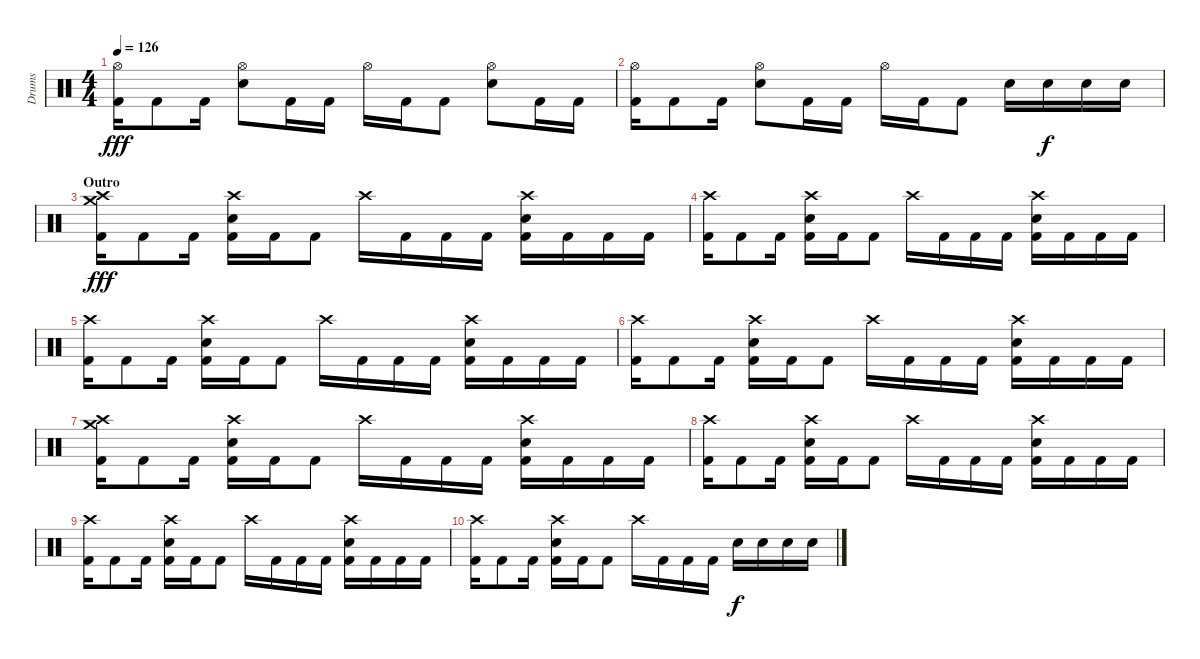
\track ("Drums" "Drums") {instrument percussion}
\staff {score}
\articulation defaults
\ts (4 4)
\tempo 126
\clef neutral
\ks c
("Hi-Hat (open)" "Kick (hit) 2").16{dy fff} "Kick (hit) 2".8 "Kick (hit) 2".16 ("Hi-Hat (open)" "Electric Snare (hit)").8 "Kick (hit) 2".16 "Kick (hit) 2".16 "Hi-Hat (open)".16 "Kick (hit) 2".16 "Kick (hit) 2".8 ("Hi-Hat (open)" "Electric Snare (hit)").8 "Kick (hit) 2".16 "Kick (hit) 2".16 |
("Hi-Hat (open)" "Kick (hit) 2").16 "Kick (hit) 2".8 "Kick (hit) 2".16 ("Hi-Hat (open)" "Electric Snare (hit)").8 "Kick (hit) 2".16 "Kick (hit) 2".16 "Hi-Hat (open)".16 "Kick (hit) 2".16 "Kick (hit) 2".8 "Electric Snare (hit)".16 "Electric Snare (hit)".16{dy f} "Electric Snare (hit)".16 "Electric Snare (hit)".16 |
\section ("" "Outro")
("Crash high (hit)" "Crash medium (hit)" "Kick (hit) 2").16{dy fff} "Kick (hit) 2".8 "Kick (hit) 2".16 ("Crash high (hit)" "Electric Snare (hit)" "Kick (hit) 2").16 "Kick (hit) 2".16 "Kick (hit) 2".8 "Crash high (hit)".16 "Kick (hit) 2".16 "Kick (hit) 2".16 "Kick (hit) 2".16 ("Crash high (hit)" "Electric Snare (hit)" "Kick (hit) 2").16 "Kick (hit) 2".16 "Kick (hit) 2".16 "Kick (hit) 2".16 |
("Crash high (hit)" "Kick (hit) 2").16 "Kick (hit) 2".8 "Kick (hit) 2".16 ("Crash high (hit)" "Electric Snare (hit)" "Kick (hit) 2").16 "Kick (hit) 2".16 "Kick (hit) 2".8 "Crash high (hit)".16 "Kick (hit) 2".16 "Kick (hit) 2".16 "Kick (hit) 2".16 ("Crash high (hit)" "Electric Snare (hit)" "Kick (hit) 2").16 "Kick (hit) 2".16 "Kick (hit) 2".16 "Kick (hit) 2".16 |
("Crash high (hit)" "Kick (hit) 2").16 "Kick (hit) 2".8 "Kick (hit) 2".16 ("Crash high (hit)" "Electric Snare (hit)" "Kick (hit) 2").16 "Kick (hit) 2".16 "Kick (hit) 2".8 "Crash high (hit)".16 "Kick (hit) 2".16 "Kick (hit) 2".16 "Kick (hit) 2".16 ("Crash high (hit)" "Electric Snare (hit)" "Kick (hit) 2").16 "Kick (hit) 2".16 "Kick (hit) 2".16 "Kick (hit) 2".16 |
("Crash high (hit)" "Kick (hit) 2").16 "Kick (hit) 2".8 "Kick (hit) 2".16 ("Crash high (hit)" "Electric Snare (hit)" "Kick (hit) 2").16 "Kick (hit) 2".16 "Kick (hit) 2".8 "Crash high (hit)".16 "Kick (hit) 2".16 "Kick (hit) 2".16 "Kick (hit) 2".16 ("Crash high (hit)" "Electric Snare (hit)" "Kick (hit) 2").16 "Kick (hit) 2".16 "Kick (hit) 2".16 "Kick (hit) 2".16 |
("Crash high (hit)" "Crash medium (hit)" "Kick (hit) 2").16 "Kick (hit) 2".8 "Kick (hit) 2".16 ("Crash high (hit)" "Electric Snare (hit)" "Kick (hit) 2").16 "Kick (hit) 2".16 "Kick (hit) 2".8 "Crash high (hit)".16 "Kick (hit) 2".16 "Kick (hit) 2".16 "Kick (hit) 2".16 ("Crash high (hit)" "Electric Snare (hit)" "Kick (hit) 2").16 "Kick (hit) 2".16 "Kick (hit) 2".16 "Kick (hit) 2".16 |
("Crash high (hit)" "Kick (hit) 2").16 "Kick (hit) 2".8 "Kick (hit) 2".16 ("Crash high (hit)" "Electric Snare (hit)" "Kick (hit) 2").16 "Kick (hit) 2".16 "Kick (hit) 2".8 "Crash high (hit)".16 "Kick (hit) 2".16 "Kick (hit) 2".16 "Kick (hit) 2".16 ("Crash high (hit)" "Electric Snare (hit)" "Kick (hit) 2").16 "Kick (hit) 2".16 "Kick (hit) 2".16 "Kick (hit) 2".16 |
("Crash high (hit)" "Kick (hit) 2").16 "Kick (hit) 2".8 "Kick (hit) 2".16 ("Crash high (hit)" "Electric Snare (hit)" "Kick (hit) 2").16 "Kick (hit) 2".16 "Kick (hit) 2".8 "Crash high (hit)".16 "Kick (hit) 2".16 "Kick (hit) 2".16 "Kick (hit) 2".16 ("Crash high (hit)" "Electric Snare (hit)" "Kick (hit) 2").16 "Kick (hit) 2".16 "Kick (hit) 2".16 "Kick (hit) 2".16 |
("Crash high (hit)" "Kick (hit) 2").16 "Kick (hit) 2".8 "Kick (hit) 2".16 ("Crash high (hit)" "Electric Snare (hit)" "Kick (hit) 2").16 "Kick (hit) 2".16 "Kick (hit) 2".8 "Crash high (hit)".16 "Kick (hit) 2".16 "Kick (hit) 2".16 "Kick (hit) 2".16 "Electric Snare (hit)".16{dy f} "Electric Snare (hit)".16 "Electric Snare (hit)".16 "Electric Snare (hit)".16
